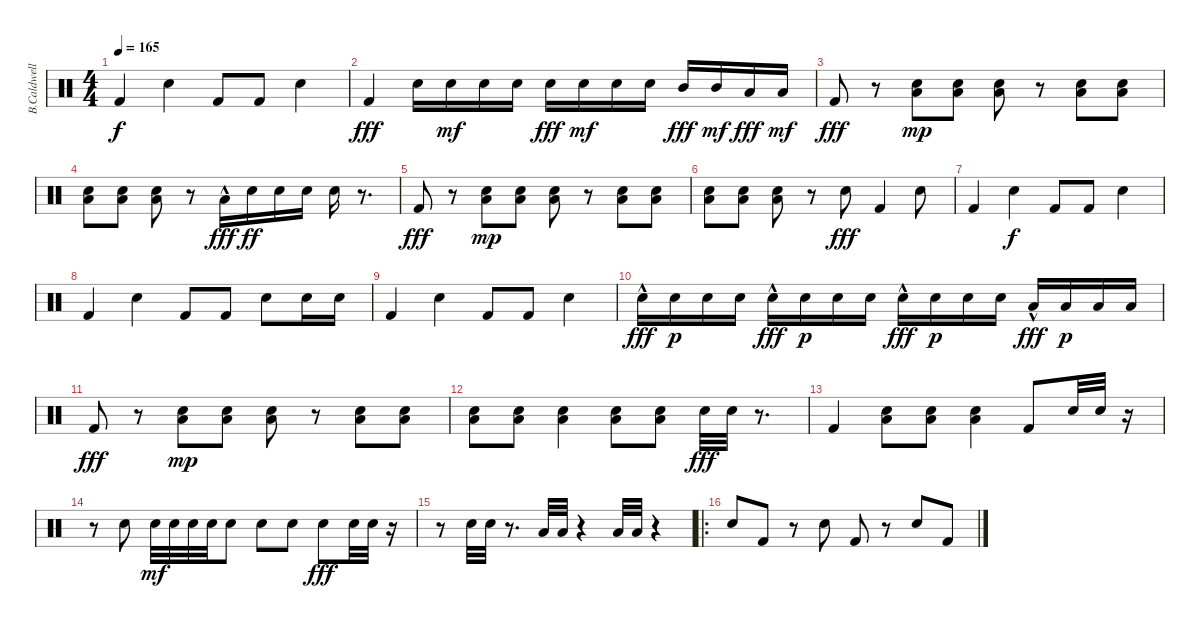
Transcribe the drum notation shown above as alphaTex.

\track ("B.Caldwell" "B.Caldwell") {instrument percussion}
\staff {score}
\articulation defaults
\ts (4 4)
\tempo 165
\clef neutral
\ks c "Kick (hit) 2".4{dy f} "Snare (hit) 2".4 "Kick (hit) 2".8 "Kick (hit) 2".8 "Snare (hit) 2".4
|
"Kick (hit) 2".4{dy fff} "Snare (hit) 2".16 "Snare (hit) 2".16{dy mf} "Snare (hit) 2".16 "Snare (hit) 2".16 "Snare (hit) 2".16{dy fff} "Snare (hit) 2".16{dy mf} "Snare (hit) 2".16 "Snare (hit) 2".16 "Mid Tom (hit)".16{dy fff} "Mid Tom (hit)".16{dy mf} "Low Tom (hit)".16{dy fff} "Low Tom (hit)".16{dy mf} |
"Kick (hit) 2".8{dy fff} r.8 ("Low Floor Tom (hit)" "Snare (hit) 2").8{dy mp} ("Low Floor Tom (hit)" "Snare (hit) 2").8 ("Low Floor Tom (hit)" "Snare (hit) 2").8 r.8 ("Low Floor Tom (hit)" "Snare (hit) 2").8 ("Low Floor Tom (hit)" "Snare (hit) 2").8 |
("Low Floor Tom (hit)" "Snare (hit) 2").8 ("Low Floor Tom (hit)" "Snare (hit) 2").8 ("Low Floor Tom (hit)" "Snare (hit) 2").8 r.8 "Low Tom (hit)"{hac}.16{dy fff} "Snare (hit) 2".16{dy ff} "Snare (hit) 2".16 "Snare (hit) 2".16 "Snare (hit) 2".16 r.8{d} |
"Kick (hit) 2".8{dy fff} r.8 ("Low Floor Tom (hit)" "Snare (hit) 2").8{dy mp} ("Low Floor Tom (hit)" "Snare (hit) 2").8 ("Low Floor Tom (hit)" "Snare (hit) 2").8 r.8 ("Low Floor Tom (hit)" "Snare (hit) 2").8 ("Low Floor Tom (hit)" "Snare (hit) 2").8 |
("Low Floor Tom (hit)" "Snare (hit) 2").8 ("Low Floor Tom (hit)" "Snare (hit) 2").8 ("Low Floor Tom (hit)" "Snare (hit) 2").8 r.8 "Snare (hit) 2".8{dy fff} "Kick (hit) 2".4 "Snare (hit) 2".8 |
"Kick (hit) 2".4 "Snare (hit) 2".4{dy f} "Kick (hit) 2".8 "Kick (hit) 2".8 "Snare (hit) 2".4 |
"Kick (hit) 2".4 "Snare (hit) 2".4 "Kick (hit) 2".8 "Kick (hit) 2".8 "Snare (hit) 2".8 "Snare (hit) 2".16 "Snare (hit) 2".16 |
"Kick (hit) 2".4 "Snare (hit) 2".4 "Kick (hit) 2".8 "Kick (hit) 2".8 "Snare (hit) 2".4 |
"Snare (hit) 2"{hac}.16{dy fff} "Snare (hit) 2".16{dy p} "Snare (hit) 2".16 "Snare (hit) 2".16 "Snare (hit) 2"{hac}.16{dy fff} "Snare (hit) 2".16{dy p} "Snare (hit) 2".16 "Snare (hit) 2".16 "Snare (hit) 2"{hac}.16{dy fff} "Snare (hit) 2".16{dy p} "Snare (hit) 2".16 "Snare (hit) 2".16 "Low Tom (hit)"{hac}.16{dy fff} "Low Tom (hit)".16{dy p} "Low Tom (hit)".16 "Low Tom (hit)".16 |
"Kick (hit) 2".8{dy fff} r.8 ("Low Floor Tom (hit)" "Snare (hit) 2").8{dy mp} ("Low Floor Tom (hit)" "Snare (hit) 2").8 ("Low Floor Tom (hit)" "Snare (hit) 2").8 r.8 ("Low Floor Tom (hit)" "Snare (hit) 2").8 ("Low Floor Tom (hit)" "Snare (hit) 2").8 |
("Low Floor Tom (hit)" "Snare (hit) 2").8 ("Low Floor Tom (hit)" "Snare (hit) 2").8 ("Low Floor Tom (hit)" "Snare (hit) 2").4 ("Low Floor Tom (hit)" "Snare (hit) 2").8 ("Low Floor Tom (hit)" "Snare (hit) 2").8 "Snare (hit) 2".32{dy fff} "Snare (hit) 2".32 r.8{d} |
"Kick (hit) 2".4 ("Low Floor Tom (hit)" "Snare (hit) 2").8 ("Low Floor Tom (hit)" "Snare (hit) 2").8 ("Low Floor Tom (hit)" "Snare (hit) 2").4 "Kick (hit) 2".8 "Snare (hit) 2".32 "Snare (hit) 2".32 r.16 |
r.8 "Snare (hit) 2".8 "Snare (hit) 2".32{dy mf} "Snare (hit) 2".32 "Snare (hit) 2".32 "Snare (hit) 2".32 "Snare (hit) 2".8 "Snare (hit) 2".8 "Snare (hit) 2".8 "Snare (hit) 2".8{dy fff} "Snare (hit) 2".32 "Snare (hit) 2".32 r.16 |
r.8 "Snare (hit) 2".32 "Snare (hit) 2".32 r.8{d} "Low Tom (hit)".32 "Low Tom (hit)".32 r.4 "Low Floor Tom (hit)".32 "Low Floor Tom (hit)".32 r.4 |
\ro "Snare (hit) 2".8 "Kick (hit) 2".8
r.8 "Snare (hit) 2".8 "Kick (hit) 2".8 r.8 "Snare (hit) 2".8 "Kick (hit) 2".8
